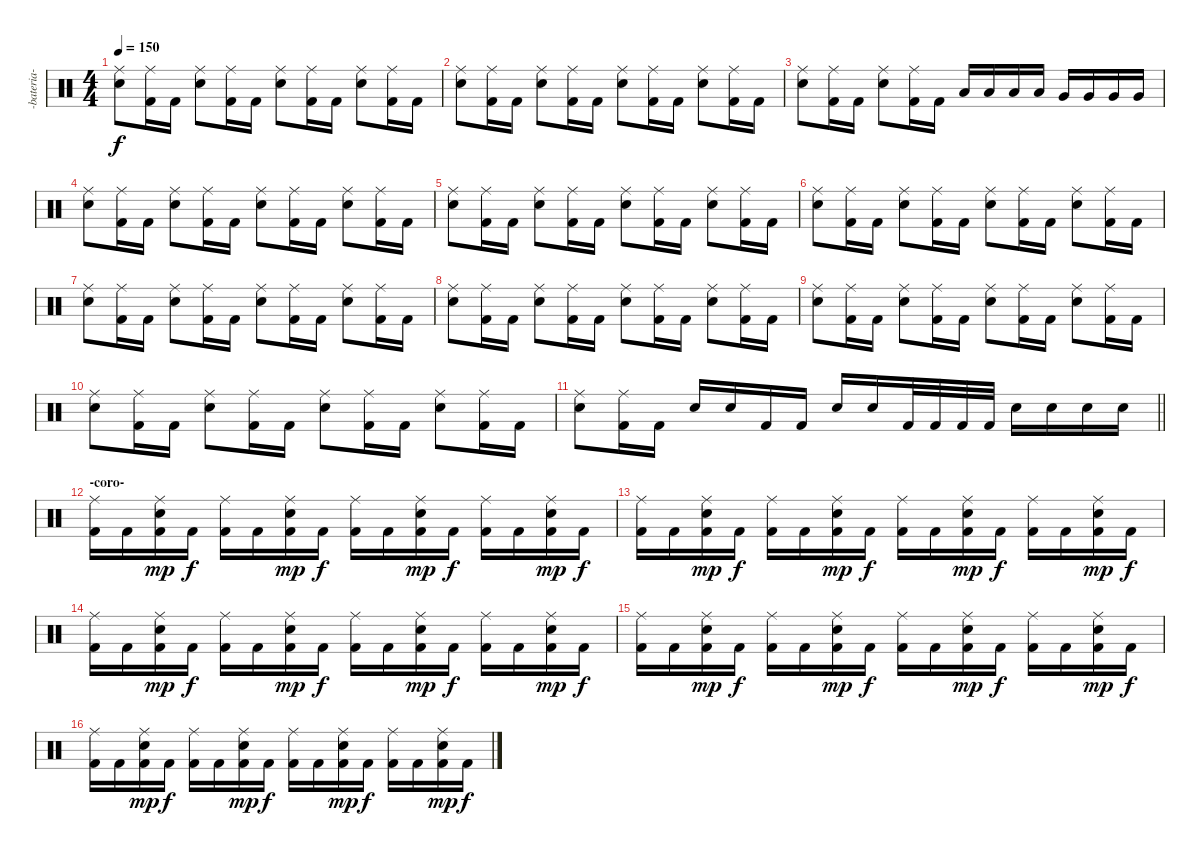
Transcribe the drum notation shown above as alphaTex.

\track ("-bateria-" "-bateria-") {instrument percussion}
\staff {score}
\articulation defaults
\ts (4 4)
\tempo 150
\clef neutral
\ks c
("Ride (middle)" "Electric Snare (hit)").8{dy f} ("Ride (middle)" "Kick (hit) 2").16 "Kick (hit) 2".16 ("Ride (middle)" "Electric Snare (hit)").8 ("Ride (middle)" "Kick (hit) 2").16 "Kick (hit) 2".16 ("Ride (middle)" "Electric Snare (hit)").8 ("Ride (middle)" "Kick (hit) 2").16 "Kick (hit) 2".16 ("Ride (middle)" "Electric Snare (hit)").8 ("Ride (middle)" "Kick (hit) 2").16 "Kick (hit) 2".16 |
("Ride (middle)" "Electric Snare (hit)").8 ("Ride (middle)" "Kick (hit) 2").16 "Kick (hit) 2".16 ("Ride (middle)" "Electric Snare (hit)").8 ("Ride (middle)" "Kick (hit) 2").16 "Kick (hit) 2".16 ("Ride (middle)" "Electric Snare (hit)").8 ("Ride (middle)" "Kick (hit) 2").16 "Kick (hit) 2".16 ("Ride (middle)" "Electric Snare (hit)").8 ("Ride (middle)" "Kick (hit) 2").16 "Kick (hit) 2".16 |
("Ride (middle)" "Electric Snare (hit)").8 ("Ride (middle)" "Kick (hit) 2").16 "Kick (hit) 2".16 ("Ride (middle)" "Electric Snare (hit)").8 ("Ride (middle)" "Kick (hit) 2").16 "Kick (hit) 2".16 "Low Tom (hit)".16 "Low Tom (hit)".16 "Low Tom (hit)".16 "Low Tom (hit)".16 "Very Low Tom (hit)".16 "Very Low Tom (hit)".16 "Very Low Tom (hit)".16 "Very Low Tom (hit)".16 |
("Ride (middle)" "Electric Snare (hit)").8 ("Ride (middle)" "Kick (hit) 2").16 "Kick (hit) 2".16 ("Ride (middle)" "Electric Snare (hit)").8 ("Ride (middle)" "Kick (hit) 2").16 "Kick (hit) 2".16 ("Ride (middle)" "Electric Snare (hit)").8 ("Ride (middle)" "Kick (hit) 2").16 "Kick (hit) 2".16 ("Ride (middle)" "Electric Snare (hit)").8 ("Ride (middle)" "Kick (hit) 2").16 "Kick (hit) 2".16 |
("Ride (middle)" "Electric Snare (hit)").8 ("Ride (middle)" "Kick (hit) 2").16 "Kick (hit) 2".16 ("Ride (middle)" "Electric Snare (hit)").8 ("Ride (middle)" "Kick (hit) 2").16 "Kick (hit) 2".16 ("Ride (middle)" "Electric Snare (hit)").8 ("Ride (middle)" "Kick (hit) 2").16 "Kick (hit) 2".16 ("Ride (middle)" "Electric Snare (hit)").8 ("Ride (middle)" "Kick (hit) 2").16 "Kick (hit) 2".16 |
("Ride (middle)" "Electric Snare (hit)").8 ("Ride (middle)" "Kick (hit) 2").16 "Kick (hit) 2".16 ("Ride (middle)" "Electric Snare (hit)").8 ("Ride (middle)" "Kick (hit) 2").16 "Kick (hit) 2".16 ("Ride (middle)" "Electric Snare (hit)").8 ("Ride (middle)" "Kick (hit) 2").16 "Kick (hit) 2".16 ("Ride (middle)" "Electric Snare (hit)").8 ("Ride (middle)" "Kick (hit) 2").16 "Kick (hit) 2".16 |
("Ride (middle)" "Electric Snare (hit)").8 ("Ride (middle)" "Kick (hit) 2").16 "Kick (hit) 2".16 ("Ride (middle)" "Electric Snare (hit)").8 ("Ride (middle)" "Kick (hit) 2").16 "Kick (hit) 2".16 ("Ride (middle)" "Electric Snare (hit)").8 ("Ride (middle)" "Kick (hit) 2").16 "Kick (hit) 2".16 ("Ride (middle)" "Electric Snare (hit)").8 ("Ride (middle)" "Kick (hit) 2").16 "Kick (hit) 2".16 |
("Ride (middle)" "Electric Snare (hit)").8 ("Ride (middle)" "Kick (hit) 2").16 "Kick (hit) 2".16 ("Ride (middle)" "Electric Snare (hit)").8 ("Ride (middle)" "Kick (hit) 2").16 "Kick (hit) 2".16 ("Ride (middle)" "Electric Snare (hit)").8 ("Ride (middle)" "Kick (hit) 2").16 "Kick (hit) 2".16 ("Ride (middle)" "Electric Snare (hit)").8 ("Ride (middle)" "Kick (hit) 2").16 "Kick (hit) 2".16 |
("Ride (middle)" "Electric Snare (hit)").8 ("Ride (middle)" "Kick (hit) 2").16 "Kick (hit) 2".16 ("Ride (middle)" "Electric Snare (hit)").8 ("Ride (middle)" "Kick (hit) 2").16 "Kick (hit) 2".16 ("Ride (middle)" "Electric Snare (hit)").8 ("Ride (middle)" "Kick (hit) 2").16 "Kick (hit) 2".16 ("Ride (middle)" "Electric Snare (hit)").8 ("Ride (middle)" "Kick (hit) 2").16 "Kick (hit) 2".16 |
("Ride (middle)" "Electric Snare (hit)").8 ("Ride (middle)" "Kick (hit) 2").16 "Kick (hit) 2".16 ("Ride (middle)" "Electric Snare (hit)").8 ("Ride (middle)" "Kick (hit) 2").16 "Kick (hit) 2".16 ("Ride (middle)" "Electric Snare (hit)").8 ("Ride (middle)" "Kick (hit) 2").16 "Kick (hit) 2".16 ("Ride (middle)" "Electric Snare (hit)").8 ("Ride (middle)" "Kick (hit) 2").16 "Kick (hit) 2".16 |
\barLineRight lightlight
("Ride (middle)" "Electric Snare (hit)").8 ("Ride (middle)" "Kick (hit) 2").16 "Kick (hit) 2".16 "Electric Snare (hit)".16 "Electric Snare (hit)".16 "Kick (hit) 2".16 "Kick (hit) 2".16 "Electric Snare (hit)".16 "Electric Snare (hit)".16 "Kick (hit) 2".32 "Kick (hit) 2".32 "Kick (hit) 2".32 "Kick (hit) 2".32 "Electric Snare (hit)".16 "Electric Snare (hit)".16 "Electric Snare (hit)".16 "Electric Snare (hit)".16 |
\section ("" "-coro-")
("Ride (middle)" "Kick (hit) 2").16 "Kick (hit) 2".16 ("Ride (middle)" "Electric Snare (hit)" "Kick (hit) 2").16{dy mp} "Kick (hit) 2".16{dy f} ("Ride (middle)" "Kick (hit) 2").16 "Kick (hit) 2".16 ("Ride (middle)" "Electric Snare (hit)" "Kick (hit) 2").16{dy mp} "Kick (hit) 2".16{dy f} ("Ride (middle)" "Kick (hit) 2").16 "Kick (hit) 2".16 ("Ride (middle)" "Electric Snare (hit)" "Kick (hit) 2").16{dy mp} "Kick (hit) 2".16{dy f} ("Ride (middle)" "Kick (hit) 2").16 "Kick (hit) 2".16 ("Ride (middle)" "Electric Snare (hit)" "Kick (hit) 2").16{dy mp} "Kick (hit) 2".16{dy f} |
("Ride (middle)" "Kick (hit) 2").16 "Kick (hit) 2".16 ("Ride (middle)" "Electric Snare (hit)" "Kick (hit) 2").16{dy mp} "Kick (hit) 2".16{dy f} ("Ride (middle)" "Kick (hit) 2").16 "Kick (hit) 2".16 ("Ride (middle)" "Electric Snare (hit)" "Kick (hit) 2").16{dy mp} "Kick (hit) 2".16{dy f} ("Ride (middle)" "Kick (hit) 2").16 "Kick (hit) 2".16 ("Ride (middle)" "Electric Snare (hit)" "Kick (hit) 2").16{dy mp} "Kick (hit) 2".16{dy f} ("Ride (middle)" "Kick (hit) 2").16 "Kick (hit) 2".16 ("Ride (middle)" "Electric Snare (hit)" "Kick (hit) 2").16{dy mp} "Kick (hit) 2".16{dy f} |
("Ride (middle)" "Kick (hit) 2").16 "Kick (hit) 2".16 ("Ride (middle)" "Electric Snare (hit)" "Kick (hit) 2").16{dy mp} "Kick (hit) 2".16{dy f} ("Ride (middle)" "Kick (hit) 2").16 "Kick (hit) 2".16 ("Ride (middle)" "Electric Snare (hit)" "Kick (hit) 2").16{dy mp} "Kick (hit) 2".16{dy f} ("Ride (middle)" "Kick (hit) 2").16 "Kick (hit) 2".16 ("Ride (middle)" "Electric Snare (hit)" "Kick (hit) 2").16{dy mp} "Kick (hit) 2".16{dy f} ("Ride (middle)" "Kick (hit) 2").16 "Kick (hit) 2".16 ("Ride (middle)" "Electric Snare (hit)" "Kick (hit) 2").16{dy mp} "Kick (hit) 2".16{dy f} |
("Ride (middle)" "Kick (hit) 2").16 "Kick (hit) 2".16 ("Ride (middle)" "Electric Snare (hit)" "Kick (hit) 2").16{dy mp} "Kick (hit) 2".16{dy f} ("Ride (middle)" "Kick (hit) 2").16 "Kick (hit) 2".16 ("Ride (middle)" "Electric Snare (hit)" "Kick (hit) 2").16{dy mp} "Kick (hit) 2".16{dy f} ("Ride (middle)" "Kick (hit) 2").16 "Kick (hit) 2".16 ("Ride (middle)" "Electric Snare (hit)" "Kick (hit) 2").16{dy mp} "Kick (hit) 2".16{dy f} ("Ride (middle)" "Kick (hit) 2").16 "Kick (hit) 2".16 ("Ride (middle)" "Electric Snare (hit)" "Kick (hit) 2").16{dy mp} "Kick (hit) 2".16{dy f} |
("Ride (middle)" "Kick (hit) 2").16 "Kick (hit) 2".16 ("Ride (middle)" "Electric Snare (hit)" "Kick (hit) 2").16{dy mp} "Kick (hit) 2".16{dy f} ("Ride (middle)" "Kick (hit) 2").16 "Kick (hit) 2".16 ("Ride (middle)" "Electric Snare (hit)" "Kick (hit) 2").16{dy mp} "Kick (hit) 2".16{dy f} ("Ride (middle)" "Kick (hit) 2").16 "Kick (hit) 2".16 ("Ride (middle)" "Electric Snare (hit)" "Kick (hit) 2").16{dy mp} "Kick (hit) 2".16{dy f} ("Ride (middle)" "Kick (hit) 2").16 "Kick (hit) 2".16 ("Ride (middle)" "Electric Snare (hit)" "Kick (hit) 2").16{dy mp} "Kick (hit) 2".16{dy f}
